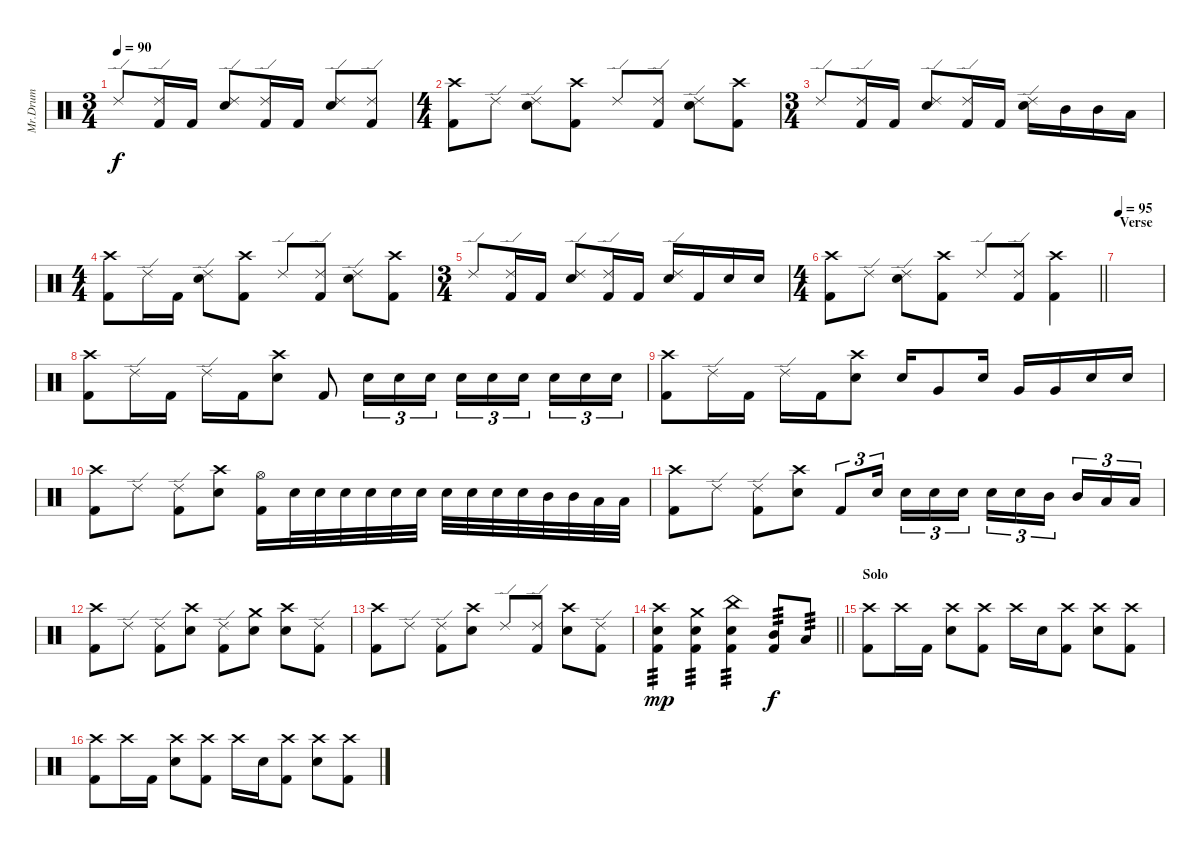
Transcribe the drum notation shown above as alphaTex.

\track ("Mr.Drum" "Mr.Drum") {instrument percussion}
\staff {score}
\articulation defaults
\ts (3 4)
\tempo 90
\clef neutral
\ks c "Ride (edge) 2".8{dy f}
("Ride (edge) 2" "Kick (hit) 2").16 "Kick (hit) 2".16 ("Ride (edge) 2" "Electric Snare (hit)").8 ("Ride (edge) 2" "Kick (hit) 2").16 "Kick (hit) 2".16 ("Ride (edge) 2" "Electric Snare (hit)").8 ("Ride (edge) 2" "Kick (hit) 2").8 |
\ts (4 4)
("Crash high (hit)" "Kick (hit) 2").8 "Ride (edge) 2".8 ("Ride (edge) 2" "Electric Snare (hit)").8 ("Crash high (hit)" "Kick (hit) 2").8 "Ride (edge) 2".8 ("Ride (edge) 2" "Kick (hit) 2").8 ("Ride (edge) 2" "Electric Snare (hit)").8 ("Crash high (hit)" "Kick (hit) 2").8 |
\ts (3 4)
"Ride (edge) 2".8 ("Ride (edge) 2" "Kick (hit) 2").16 "Kick (hit) 2".16 ("Ride (edge) 2" "Electric Snare (hit)").8 ("Ride (edge) 2" "Kick (hit) 2").16 "Kick (hit) 2".16 ("Ride (edge) 2" "Electric Snare (hit)").16 "Mid Tom (hit)".16 "Mid Tom (hit)".16 "Low Tom (hit)".16 |
\ts (4 4)
("Crash high (hit)" "Kick (hit) 2").8 "Ride (edge) 2".16 "Kick (hit) 2".16 ("Ride (edge) 2" "Electric Snare (hit)").8 ("Crash high (hit)" "Kick (hit) 2").8 "Ride (edge) 2".8 ("Ride (edge) 2" "Kick (hit) 2").8 ("Ride (edge) 2" "Electric Snare (hit)").8 ("Crash high (hit)" "Kick (hit) 2").8 |
\ts (3 4)
"Ride (edge) 2".8 ("Ride (edge) 2" "Kick (hit) 2").16 "Kick (hit) 2".16 ("Ride (edge) 2" "Electric Snare (hit)").8 ("Ride (edge) 2" "Kick (hit) 2").16 "Kick (hit) 2".16 ("Ride (edge) 2" "Electric Snare (hit)").16 "Kick (hit) 2".16 "Electric Snare (hit)".16 "Electric Snare (hit)".16 |
\ts (4 4)
\barLineRight lightlight
("Crash high (hit)" "Kick (hit) 2").8 "Ride (edge) 2".8 ("Ride (edge) 2" "Electric Snare (hit)").8 ("Crash high (hit)" "Kick (hit) 2").8 "Ride (edge) 2".8 ("Ride (edge) 2" "Kick (hit) 2").8 ("Crash high (hit)" "Kick (hit) 2").4 |
\section ("" "Verse")
\tempo 95
|
("Crash high (hit)" "Kick (hit) 2").8 "Ride (edge) 2".16 "Kick (hit) 2".16 "Ride (edge) 2".16 "Kick (hit) 2".16 ("Crash high (hit)" "Electric Snare (hit)").8 "Kick (hit) 2".8 "Electric Snare (hit)".16{tu (3 2)} "Electric Snare (hit)".16{tu (3 2)} "Electric Snare (hit)".16{tu (3 2)} "Electric Snare (hit)".16{tu (3 2)} "Electric Snare (hit)".16{tu (3 2)} "Electric Snare (hit)".16{tu (3 2) beam splitsecondary} "Electric Snare (hit)".16{tu (3 2)} "Electric Snare (hit)".16{tu (3 2)} "Electric Snare (hit)".16{tu (3 2)} |
("Crash high (hit)" "Kick (hit) 2").8 "Ride (edge) 2".16 "Kick (hit) 2".16 "Ride (edge) 2".16 "Kick (hit) 2".16 ("Crash high (hit)" "Electric Snare (hit)").8 "Electric Snare (hit)".16 "Very Low Tom (hit)".8 "Electric Snare (hit)".16 "Very Low Tom (hit)".16 "Very Low Tom (hit)".16 "Electric Snare (hit)".16 "Electric Snare (hit)".16 |
("Crash high (hit)" "Kick (hit) 2").8 "Ride (edge) 2".8 ("Ride (edge) 2" "Kick (hit) 2").8 ("Crash high (hit)" "Electric Snare (hit)").8 ("Hi-Hat (open)" "Kick (hit) 2").16 "Electric Snare (hit)".32 "Electric Snare (hit)".32 "Electric Snare (hit)".32 "Electric Snare (hit)".32 "Electric Snare (hit)".32 "Electric Snare (hit)".32 "Electric Snare (hit)".32 "Electric Snare (hit)".32 "Electric Snare (hit)".32 "Electric Snare (hit)".32 "Mid Tom (hit)".32 "Mid Tom (hit)".32 "Low Tom (hit)".32 "Low Tom (hit)".32 |
("Crash high (hit)" "Kick (hit) 2").8 "Ride (edge) 2".8 ("Ride (edge) 2" "Kick (hit) 2").8 ("Crash high (hit)" "Electric Snare (hit)").8 "Kick (hit) 2".8{tu (3 2)} "Electric Snare (hit)".16{tu (3 2) beam splitsecondary} "Electric Snare (hit)".16{tu (3 2)} "Electric Snare (hit)".16{tu (3 2)} "Electric Snare (hit)".16{tu (3 2)} "Electric Snare (hit)".16{tu (3 2)} "Electric Snare (hit)".16{tu (3 2)} "Mid Tom (hit)".16{tu (3 2) beam splitsecondary} "Mid Tom (hit)".16{tu (3 2)} "Low Tom (hit)".16{tu (3 2)} "Low Tom (hit)".16{tu (3 2)} |
("Crash high (hit)" "Kick (hit) 2").8 "Ride (edge) 2".8 ("Ride (edge) 2" "Kick (hit) 2").8 ("Crash high (hit)" "Electric Snare (hit)").8 ("Ride (edge) 2" "Kick (hit) 2").8 ("Crash medium (hit)" "Electric Snare (hit)").8 ("Crash high (hit)" "Electric Snare (hit)").8 ("Ride (edge) 2" "Kick (hit) 2").8 |
("Crash high (hit)" "Kick (hit) 2").8 "Ride (edge) 2".8 ("Ride (edge) 2" "Kick (hit) 2").8 ("Crash high (hit)" "Electric Snare (hit)").8 "Ride (edge) 2".8 ("Ride (edge) 2" "Kick (hit) 2").8 ("Crash high (hit)" "Electric Snare (hit)").8 ("Ride (edge) 2" "Kick (hit) 2").8 |
\barLineRight lightlight
("Crash high (hit)" "Electric Snare (hit)" "Kick (hit) 2").4{tp 3 dy mp} ("Crash medium (hit)" "Electric Snare (hit)" "Kick (hit) 2").4{tp 3} ("China (hit)" "Electric Snare (hit)" "Kick (hit) 2").4{tp 3} ("Mid Tom (hit)" "Kick (hit) 2").8{tp 3 dy f} "Low Tom (hit)".8{tp 3} |
\section ("" "Solo")
("Crash high (hit)" "Kick (hit) 2").8 "Crash high (hit)".16 "Kick (hit) 2".16 ("Crash high (hit)" "Electric Snare (hit)").8 ("Crash high (hit)" "Kick (hit) 2").8 "Crash high (hit)".16 "Electric Snare (hit)".16 ("Crash high (hit)" "Kick (hit) 2").8 ("Crash high (hit)" "Electric Snare (hit)").8 ("Crash high (hit)" "Kick (hit) 2").8 |
("Crash high (hit)" "Kick (hit) 2").8 "Crash high (hit)".16 "Kick (hit) 2".16 ("Crash high (hit)" "Electric Snare (hit)").8 ("Crash high (hit)" "Kick (hit) 2").8 "Crash high (hit)".16 "Electric Snare (hit)".16 ("Crash high (hit)" "Kick (hit) 2").8 ("Crash high (hit)" "Electric Snare (hit)").8 ("Crash high (hit)" "Kick (hit) 2").8
